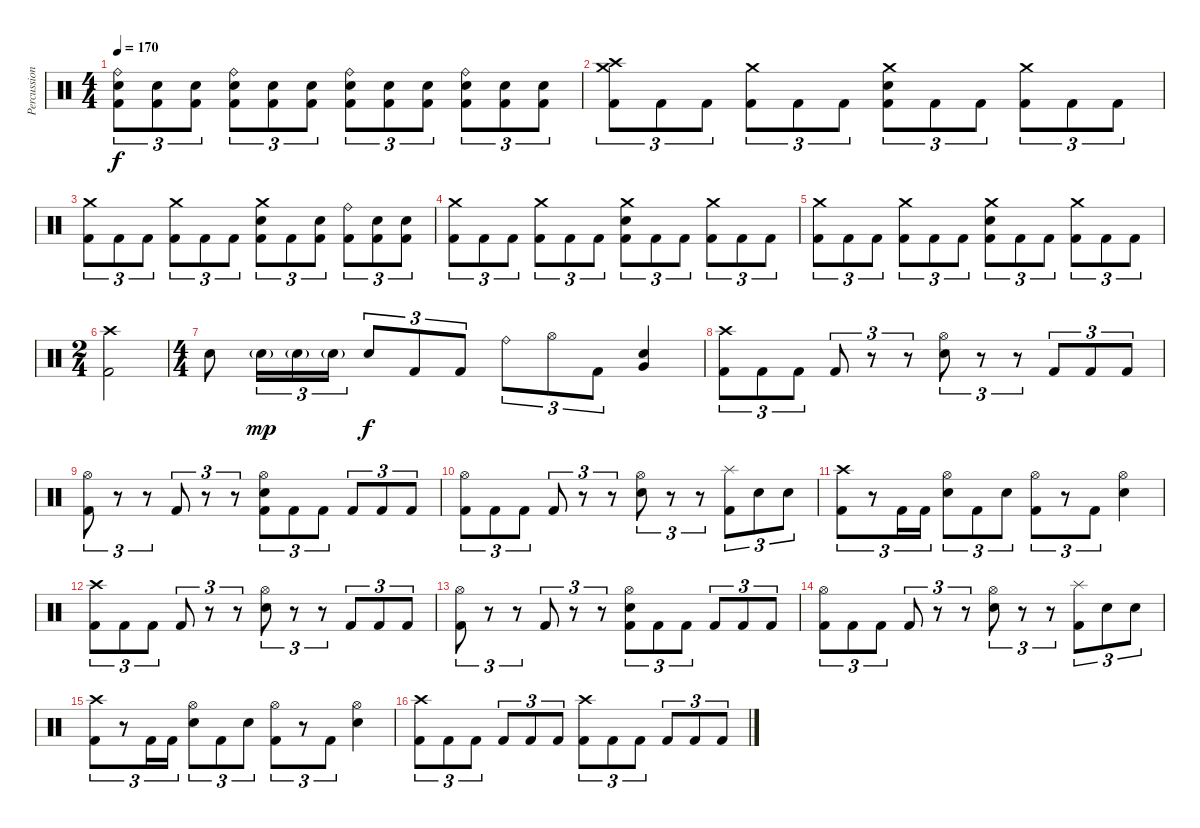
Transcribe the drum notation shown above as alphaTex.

\track ("Percussion" "Percussion") {instrument percussion}
\staff {score}
\articulation defaults
\ts (4 4)
\tempo 170
\clef neutral
\ks c
("Ride (bell)" "Electric Snare (hit)" "Kick (hit) 2").8{tu (3 2) dy f} ("Electric Snare (hit)" "Kick (hit) 2").8{tu (3 2)} ("Electric Snare (hit)" "Kick (hit) 2").8{tu (3 2)} ("Ride (bell)" "Electric Snare (hit)" "Kick (hit) 2").8{tu (3 2)} ("Electric Snare (hit)" "Kick (hit) 2").8{tu (3 2)} ("Electric Snare (hit)" "Kick (hit) 2").8{tu (3 2)} ("Ride (bell)" "Electric Snare (hit)" "Kick (hit) 2").8{tu (3 2)} ("Electric Snare (hit)" "Kick (hit) 2").8{tu (3 2)} ("Electric Snare (hit)" "Kick (hit) 2").8{tu (3 2)} ("Ride (bell)" "Electric Snare (hit)" "Kick (hit) 2").8{tu (3 2)} ("Electric Snare (hit)" "Kick (hit) 2").8{tu (3 2)} ("Electric Snare (hit)" "Kick (hit) 2").8{tu (3 2)} |
("Crash high (hit)" "Crash medium (hit)" "Kick (hit) 2").8{tu (3 2)} "Kick (hit) 2".8{tu (3 2)} "Kick (hit) 2".8{tu (3 2)} ("Crash medium (hit)" "Kick (hit) 2").8{tu (3 2)} "Kick (hit) 2".8{tu (3 2)} "Kick (hit) 2".8{tu (3 2)} ("Crash medium (hit)" "Electric Snare (hit)" "Kick (hit) 2").8{tu (3 2)} "Kick (hit) 2".8{tu (3 2)} "Kick (hit) 2".8{tu (3 2)} ("Crash medium (hit)" "Kick (hit) 2").8{tu (3 2)} "Kick (hit) 2".8{tu (3 2)} "Kick (hit) 2".8{tu (3 2)} |
("Crash medium (hit)" "Kick (hit) 2").8{tu (3 2)} "Kick (hit) 2".8{tu (3 2)} "Kick (hit) 2".8{tu (3 2)} ("Crash medium (hit)" "Kick (hit) 2").8{tu (3 2)} "Kick (hit) 2".8{tu (3 2)} "Kick (hit) 2".8{tu (3 2)} ("Crash medium (hit)" "Electric Snare (hit)" "Kick (hit) 2").8{tu (3 2)} "Kick (hit) 2".8{tu (3 2)} ("Electric Snare (hit)" "Kick (hit) 2").8{tu (3 2)} ("Ride (bell)" "Kick (hit) 2").8{tu (3 2)} ("Electric Snare (hit)" "Kick (hit) 2").8{tu (3 2)} ("Electric Snare (hit)" "Kick (hit) 2").8{tu (3 2)} |
("Crash medium (hit)" "Kick (hit) 2").8{tu (3 2)} "Kick (hit) 2".8{tu (3 2)} "Kick (hit) 2".8{tu (3 2)} ("Crash medium (hit)" "Kick (hit) 2").8{tu (3 2)} "Kick (hit) 2".8{tu (3 2)} "Kick (hit) 2".8{tu (3 2)} ("Crash medium (hit)" "Electric Snare (hit)" "Kick (hit) 2").8{tu (3 2)} "Kick (hit) 2".8{tu (3 2)} "Kick (hit) 2".8{tu (3 2)} ("Crash medium (hit)" "Kick (hit) 2").8{tu (3 2)} "Kick (hit) 2".8{tu (3 2)} "Kick (hit) 2".8{tu (3 2)} |
("Crash medium (hit)" "Kick (hit) 2").8{tu (3 2)} "Kick (hit) 2".8{tu (3 2)} "Kick (hit) 2".8{tu (3 2)} ("Crash medium (hit)" "Kick (hit) 2").8{tu (3 2)} "Kick (hit) 2".8{tu (3 2)} "Kick (hit) 2".8{tu (3 2)} ("Crash medium (hit)" "Electric Snare (hit)" "Kick (hit) 2").8{tu (3 2)} "Kick (hit) 2".8{tu (3 2)} "Kick (hit) 2".8{tu (3 2)} ("Crash medium (hit)" "Kick (hit) 2").8{tu (3 2)} "Kick (hit) 2".8{tu (3 2)} "Kick (hit) 2".8{tu (3 2)} |
\ts (2 4)
("Crash high (hit)" "Kick (hit) 2").2 |
\ts (4 4)
"Electric Snare (hit)".8 "Electric Snare (hit)"{g}.16{tu (3 2) dy mp} "Electric Snare (hit)"{g}.16{tu (3 2)} "Electric Snare (hit)"{g}.16{tu (3 2)} "Electric Snare (hit)".8{tu (3 2) dy f} "Kick (hit) 2".8{tu (3 2)} "Kick (hit) 2".8{tu (3 2)} "Ride (bell)".8{tu (3 2)} "Hi-Hat (open)".8{tu (3 2)} "Kick (hit) 2".8{tu (3 2)} ("Very Low Tom (hit)" "Electric Snare (hit)").4 |
("Crash high (hit)" "Kick (hit) 2").8{tu (3 2)} "Kick (hit) 2".8{tu (3 2)} "Kick (hit) 2".8{tu (3 2)} "Kick (hit) 2".8{tu (3 2)} r.8{tu (3 2)} r.8{tu (3 2)} ("Hi-Hat (open)" "Electric Snare (hit)").8{tu (3 2)} r.8{tu (3 2)} r.8{tu (3 2)} "Kick (hit) 2".8{tu (3 2)} "Kick (hit) 2".8{tu (3 2)} "Kick (hit) 2".8{tu (3 2)} |
("Hi-Hat (open)" "Kick (hit) 2").8{tu (3 2)} r.8{tu (3 2)} r.8{tu (3 2)} "Kick (hit) 2".8{tu (3 2)} r.8{tu (3 2)} r.8{tu (3 2)} ("Hi-Hat (open)" "Electric Snare (hit)" "Kick (hit) 2").8{tu (3 2)} "Kick (hit) 2".8{tu (3 2)} "Kick (hit) 2".8{tu (3 2)} "Kick (hit) 2".8{tu (3 2)} "Kick (hit) 2".8{tu (3 2)} "Kick (hit) 2".8{tu (3 2)} |
("Hi-Hat (open)" "Kick (hit) 2").8{tu (3 2)} "Kick (hit) 2".8{tu (3 2)} "Kick (hit) 2".8{tu (3 2)} "Kick (hit) 2".8{tu (3 2)} r.8{tu (3 2)} r.8{tu (3 2)} ("Hi-Hat (open)" "Electric Snare (hit)").8{tu (3 2)} r.8{tu (3 2)} r.8{tu (3 2)} ("Splash (hit)" "Kick (hit) 2").8{tu (3 2)} "Electric Snare (hit)".8{tu (3 2)} "Electric Snare (hit)".8{tu (3 2)} |
("Crash high (hit)" "Kick (hit) 2").8{tu (3 2)} r.8{tu (3 2)} "Kick (hit) 2".16{tu (3 2)} "Kick (hit) 2".16{tu (3 2)} ("Hi-Hat (open)" "Electric Snare (hit)").8{tu (3 2)} "Kick (hit) 2".8{tu (3 2)} "Electric Snare (hit)".8{tu (3 2)} ("Hi-Hat (open)" "Kick (hit) 2").8{tu (3 2)} r.8{tu (3 2)} "Kick (hit) 2".8{tu (3 2)} ("Hi-Hat (open)" "Electric Snare (hit)").4 |
("Crash high (hit)" "Kick (hit) 2").8{tu (3 2)} "Kick (hit) 2".8{tu (3 2)} "Kick (hit) 2".8{tu (3 2)} "Kick (hit) 2".8{tu (3 2)} r.8{tu (3 2)} r.8{tu (3 2)} ("Hi-Hat (open)" "Electric Snare (hit)").8{tu (3 2)} r.8{tu (3 2)} r.8{tu (3 2)} "Kick (hit) 2".8{tu (3 2)} "Kick (hit) 2".8{tu (3 2)} "Kick (hit) 2".8{tu (3 2)} |
("Hi-Hat (open)" "Kick (hit) 2").8{tu (3 2)} r.8{tu (3 2)} r.8{tu (3 2)} "Kick (hit) 2".8{tu (3 2)} r.8{tu (3 2)} r.8{tu (3 2)} ("Hi-Hat (open)" "Electric Snare (hit)" "Kick (hit) 2").8{tu (3 2)} "Kick (hit) 2".8{tu (3 2)} "Kick (hit) 2".8{tu (3 2)} "Kick (hit) 2".8{tu (3 2)} "Kick (hit) 2".8{tu (3 2)} "Kick (hit) 2".8{tu (3 2)} |
("Hi-Hat (open)" "Kick (hit) 2").8{tu (3 2)} "Kick (hit) 2".8{tu (3 2)} "Kick (hit) 2".8{tu (3 2)} "Kick (hit) 2".8{tu (3 2)} r.8{tu (3 2)} r.8{tu (3 2)} ("Hi-Hat (open)" "Electric Snare (hit)").8{tu (3 2)} r.8{tu (3 2)} r.8{tu (3 2)} ("Splash (hit)" "Kick (hit) 2").8{tu (3 2)} "Electric Snare (hit)".8{tu (3 2)} "Electric Snare (hit)".8{tu (3 2)} |
("Crash high (hit)" "Kick (hit) 2").8{tu (3 2)} r.8{tu (3 2)} "Kick (hit) 2".16{tu (3 2)} "Kick (hit) 2".16{tu (3 2)} ("Hi-Hat (open)" "Electric Snare (hit)").8{tu (3 2)} "Kick (hit) 2".8{tu (3 2)} "Electric Snare (hit)".8{tu (3 2)} ("Hi-Hat (open)" "Kick (hit) 2").8{tu (3 2)} r.8{tu (3 2)} "Kick (hit) 2".8{tu (3 2)} ("Hi-Hat (open)" "Electric Snare (hit)").4 |
("Crash high (hit)" "Kick (hit) 2").8{tu (3 2)} "Kick (hit) 2".8{tu (3 2)} "Kick (hit) 2".8{tu (3 2)} "Kick (hit) 2".8{tu (3 2)} "Kick (hit) 2".8{tu (3 2)} "Kick (hit) 2".8{tu (3 2)} ("Crash high (hit)" "Kick (hit) 2").8{tu (3 2)} "Kick (hit) 2".8{tu (3 2)} "Kick (hit) 2".8{tu (3 2)} "Kick (hit) 2".8{tu (3 2)} "Kick (hit) 2".8{tu (3 2)} "Kick (hit) 2".8{tu (3 2)}
